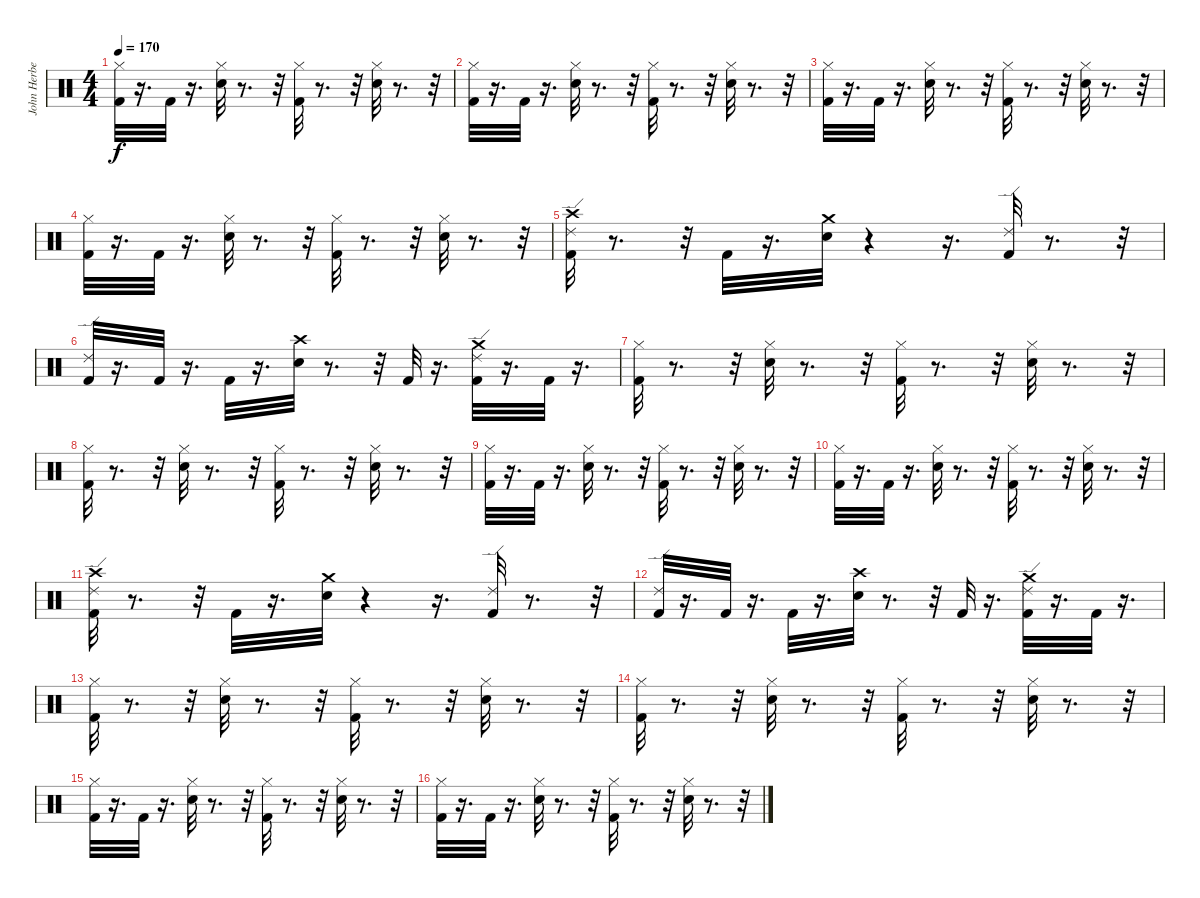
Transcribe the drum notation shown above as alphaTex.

\track ("John Herbert" "John Herbe") {instrument percussion}
\staff {score}
\articulation defaults
\ts (4 4)
\tempo 170
\clef neutral
\ks c
("Hi-Hat (closed)" "Kick (hit) 2").32{dy f} r.16{d} "Kick (hit) 2".32 r.16{d} ("Hi-Hat (closed)" "Snare (hit) 2").32 r.8{d} r.32 ("Hi-Hat (closed)" "Kick (hit) 2").32 r.8{d} r.32 ("Hi-Hat (closed)" "Snare (hit) 2").32 r.8{d} r.32 |
("Hi-Hat (closed)" "Kick (hit) 2").32 r.16{d} "Kick (hit) 2".32 r.16{d} ("Hi-Hat (closed)" "Snare (hit) 2").32 r.8{d} r.32 ("Hi-Hat (closed)" "Kick (hit) 2").32 r.8{d} r.32 ("Hi-Hat (closed)" "Snare (hit) 2").32 r.8{d} r.32 |
("Hi-Hat (closed)" "Kick (hit) 2").32 r.16{d} "Kick (hit) 2".32 r.16{d} ("Hi-Hat (closed)" "Snare (hit) 2").32 r.8{d} r.32 ("Hi-Hat (closed)" "Kick (hit) 2").32 r.8{d} r.32 ("Hi-Hat (closed)" "Snare (hit) 2").32 r.8{d} r.32 |
("Hi-Hat (closed)" "Kick (hit) 2").32 r.16{d} "Kick (hit) 2".32 r.16{d} ("Hi-Hat (closed)" "Snare (hit) 2").32 r.8{d} r.32 ("Hi-Hat (closed)" "Kick (hit) 2").32 r.8{d} r.32 ("Hi-Hat (closed)" "Snare (hit) 2").32 r.8{d} r.32 |
("Ride (edge) 2" "Crash high (hit)" "Kick (hit) 2").32 r.8{d} r.32 "Kick (hit) 2".32 r.16{d} ("Crash medium (hit)" "Snare (hit) 2").32 r.4 r.16{d} ("Ride (edge) 2" "Kick (hit) 2").32 r.8{d} r.32 |
("Ride (edge) 2" "Kick (hit) 2").32 r.16{d} "Kick (hit) 2".32 r.16{d} "Kick (hit) 2".32 r.16{d} ("Crash high (hit)" "Snare (hit) 2").32 r.8{d} r.32 "Kick (hit) 2".32 r.16{d} ("Ride (edge) 2" "Crash medium (hit)" "Kick (hit) 2").32 r.16{d} "Kick (hit) 2".32 r.16{d} |
("Hi-Hat (closed)" "Kick (hit) 2").32 r.8{d} r.32 ("Hi-Hat (closed)" "Snare (hit) 2").32 r.8{d} r.32 ("Hi-Hat (closed)" "Kick (hit) 2").32 r.8{d} r.32 ("Hi-Hat (closed)" "Snare (hit) 2").32 r.8{d} r.32 |
("Hi-Hat (closed)" "Kick (hit) 2").32 r.8{d} r.32 ("Hi-Hat (closed)" "Snare (hit) 2").32 r.8{d} r.32 ("Hi-Hat (closed)" "Kick (hit) 2").32 r.8{d} r.32 ("Hi-Hat (closed)" "Snare (hit) 2").32 r.8{d} r.32 |
("Hi-Hat (closed)" "Kick (hit) 2").32 r.16{d} "Kick (hit) 2".32 r.16{d} ("Hi-Hat (closed)" "Snare (hit) 2").32 r.8{d} r.32 ("Hi-Hat (closed)" "Kick (hit) 2").32 r.8{d} r.32 ("Hi-Hat (closed)" "Snare (hit) 2").32 r.8{d} r.32 |
("Hi-Hat (closed)" "Kick (hit) 2").32 r.16{d} "Kick (hit) 2".32 r.16{d} ("Hi-Hat (closed)" "Snare (hit) 2").32 r.8{d} r.32 ("Hi-Hat (closed)" "Kick (hit) 2").32 r.8{d} r.32 ("Hi-Hat (closed)" "Snare (hit) 2").32 r.8{d} r.32 |
("Ride (edge) 2" "Crash high (hit)" "Kick (hit) 2").32 r.8{d} r.32 "Kick (hit) 2".32 r.16{d} ("Crash medium (hit)" "Snare (hit) 2").32 r.4 r.16{d} ("Ride (edge) 2" "Kick (hit) 2").32 r.8{d} r.32 |
("Ride (edge) 2" "Kick (hit) 2").32 r.16{d} "Kick (hit) 2".32 r.16{d} "Kick (hit) 2".32 r.16{d} ("Crash high (hit)" "Snare (hit) 2").32 r.8{d} r.32 "Kick (hit) 2".32 r.16{d} ("Ride (edge) 2" "Crash medium (hit)" "Kick (hit) 2").32 r.16{d} "Kick (hit) 2".32 r.16{d} |
("Hi-Hat (closed)" "Kick (hit) 2").32 r.8{d} r.32 ("Hi-Hat (closed)" "Snare (hit) 2").32 r.8{d} r.32 ("Hi-Hat (closed)" "Kick (hit) 2").32 r.8{d} r.32 ("Hi-Hat (closed)" "Snare (hit) 2").32 r.8{d} r.32 |
("Hi-Hat (closed)" "Kick (hit) 2").32 r.8{d} r.32 ("Hi-Hat (closed)" "Snare (hit) 2").32 r.8{d} r.32 ("Hi-Hat (closed)" "Kick (hit) 2").32 r.8{d} r.32 ("Hi-Hat (closed)" "Snare (hit) 2").32 r.8{d} r.32 |
("Hi-Hat (closed)" "Kick (hit) 2").32 r.16{d} "Kick (hit) 2".32 r.16{d} ("Hi-Hat (closed)" "Snare (hit) 2").32 r.8{d} r.32 ("Hi-Hat (closed)" "Kick (hit) 2").32 r.8{d} r.32 ("Hi-Hat (closed)" "Snare (hit) 2").32 r.8{d} r.32 |
("Hi-Hat (closed)" "Kick (hit) 2").32 r.16{d} "Kick (hit) 2".32 r.16{d} ("Hi-Hat (closed)" "Snare (hit) 2").32 r.8{d} r.32 ("Hi-Hat (closed)" "Kick (hit) 2").32 r.8{d} r.32 ("Hi-Hat (closed)" "Snare (hit) 2").32 r.8{d} r.32
